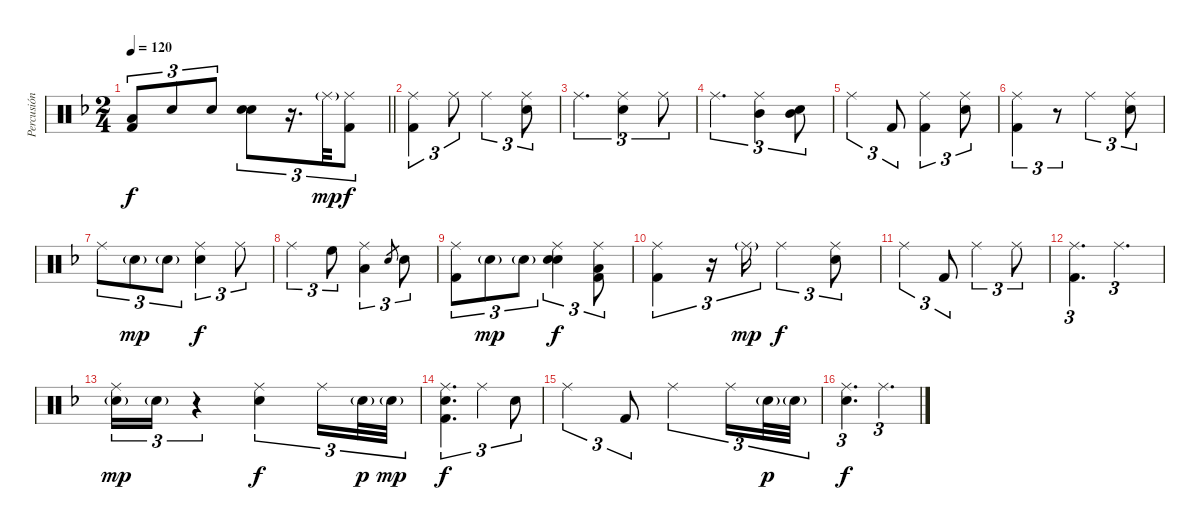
\track ("Percusión" "Percusión") {instrument percussion}
\staff {score}
\articulation defaults
\ts (2 4)
\tempo 120
\clef neutral
\barLineRight lightlight
\ks dminor
("Low Tom (hit)" "Kick (hit) 2").8{tu (3 2) dy f} "Snare (hit) 2".8{tu (3 2)} "Snare (hit) 2".8{tu (3 2)} ("Snare (hit) 2" "Electric Snare (hit)").8{tu (3 2)} r.16{d tu (3 2)} "Ride (middle)"{g}.32{tu (3 2) dy mp} ("Ride (middle)" "Kick (hit) 2").8{tu (3 2) dy f} |
("Ride (middle)" "Kick (hit) 2").4{tu (3 2)} "Ride (middle)".8{tu (3 2)} "Ride (middle)".4{tu (3 2)} ("Ride (middle)" "Snare (hit) 2").8{tu (3 2)} |
"Ride (middle)".4{d tu (3 2)} ("Ride (middle)" "Snare (hit) 2").4{tu (3 2)} "Ride (middle)".8{tu (3 2)} |
"Ride (middle)".4{d tu (3 2)} ("Ride (middle)" "Mid Tom (hit)").4{tu (3 2)} ("Mid Tom (hit)" "Snare (hit) 2").8{tu (3 2)} |
"Ride (middle)".4{tu (3 2)} "Kick (hit) 2".8{tu (3 2)} ("Ride (middle)" "Kick (hit) 2").4{tu (3 2)} ("Ride (middle)" "Snare (hit) 2").8{tu (3 2)} |
("Ride (middle)" "Kick (hit) 2").4{tu (3 2)} r.8{tu (3 2)} "Ride (middle)".4{tu (3 2)} ("Ride (middle)" "Snare (hit) 2").8{tu (3 2)} |
"Ride (middle)".8{tu (3 2)} "Snare (hit) 2"{g}.8{tu (3 2) dy mp} "Snare (hit) 2"{g}.8{tu (3 2)} ("Ride (middle)" "Snare (hit) 2").4{tu (3 2) dy f} "Ride (middle)".8{tu (3 2)} |
"Ride (middle)".4{tu (3 2)} "High Floor Tom (hit)".8{tu (3 2)} ("Ride (middle)" "Low Tom (hit)").4{tu (3 2)} "Snare (hit) 2".8{gr} "Snare (hit) 2".8{tu (3 2)} |
("Ride (middle)" "Kick (hit) 2").8{tu (3 2)} "Snare (hit) 2"{g}.8{tu (3 2) dy mp} "Snare (hit) 2"{g}.8{tu (3 2)} ("Ride (middle)" "Snare (hit) 2" "Electric Snare (hit)").4{tu (3 2) dy f} ("Ride (middle)" "Low Tom (hit)" "Kick (hit) 2").8{tu (3 2)} |
("Ride (middle)" "Kick (hit) 2").4{tu (3 2)} r.16{tu (3 2)} "Ride (middle)"{g}.16{tu (3 2) dy mp} "Ride (middle)".4{tu (3 2) dy f} ("Ride (middle)" "Snare (hit) 2").8{tu (3 2)} |
"Ride (middle)".4{tu (3 2)} "Kick (hit) 2".8{tu (3 2)} "Ride (middle)".4{tu (3 2)} "Ride (middle)".8{tu (3 2)} |
("Ride (middle)" "Kick (hit) 2").4{d tu (3 2)} "Ride (middle)".4{d tu (3 2)} |
("Ride (middle)" "Snare (hit) 2"{g}).16{tu (3 2) dy mp} "Snare (hit) 2"{g}.16{tu (3 2)} r.4{tu (3 2)} ("Ride (middle)" "Snare (hit) 2").4{tu (3 2) dy f} "Ride (middle)".16{tu (3 2)} "Snare (hit) 2"{g}.32{tu (3 2) dy p} "Snare (hit) 2"{g}.32{tu (3 2) dy mp} |
("Ride (middle)" "Snare (hit) 2" "Kick (hit) 2").4{d tu (3 2) dy f} "Ride (middle)".4{tu (3 2)} "Snare (hit) 2".8{tu (3 2)} |
"Ride (middle)".4{tu (3 2)} "Kick (hit) 2".8{tu (3 2)} "Ride (middle)".4{tu (3 2)} "Ride (middle)".16{tu (3 2)} "Snare (hit) 2"{g}.32{tu (3 2) dy p} "Snare (hit) 2"{g}.32{tu (3 2)} |
("Ride (middle)" "Snare (hit) 2").4{d tu (3 2) dy f} "Ride (middle)".4{d tu (3 2)}
